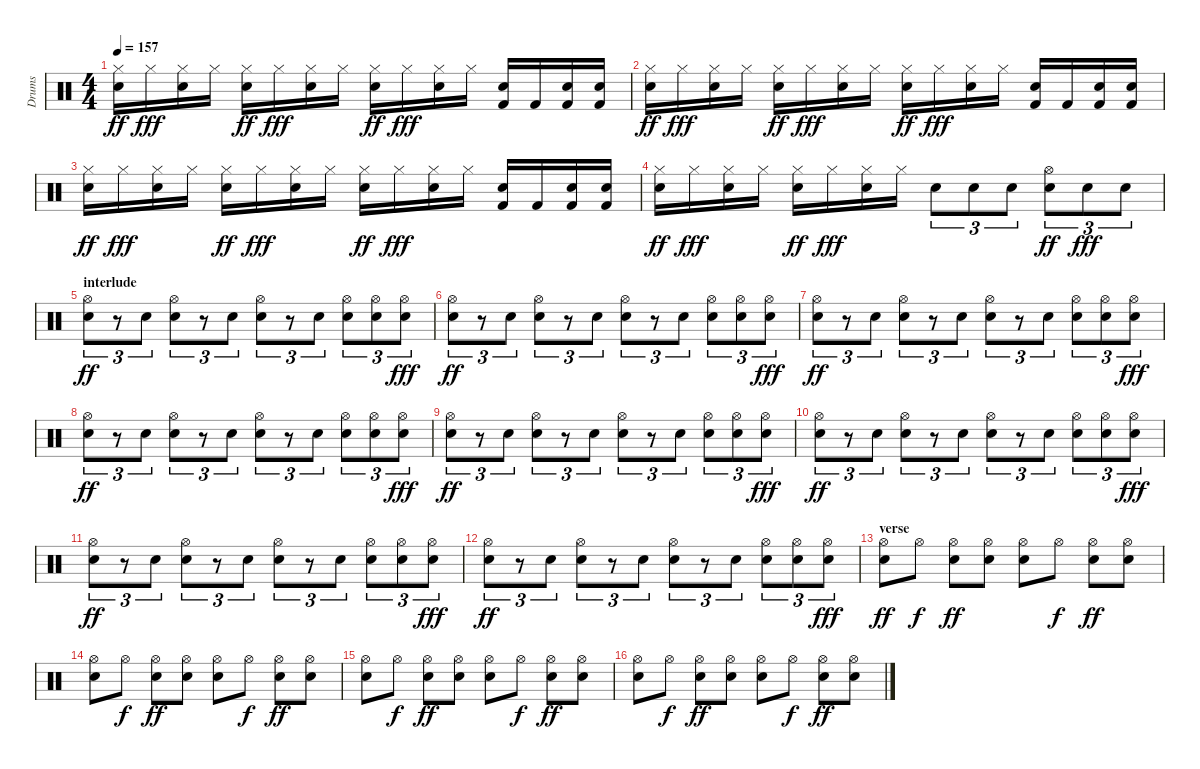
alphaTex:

\track ("Drums" "Drums") {instrument percussion}
\staff {score}
\articulation defaults
\ts (4 4)
\tempo 157
\clef neutral
\ks c
("Hi-Hat (closed)" "Electric Snare (hit)").16{dy ff} "Hi-Hat (closed)".16{dy fff} ("Hi-Hat (closed)" "Snare (hit) 2").16 "Hi-Hat (closed)".16 ("Hi-Hat (closed)" "Electric Snare (hit)").16{dy ff} "Hi-Hat (closed)".16{dy fff} ("Hi-Hat (closed)" "Snare (hit) 2").16 "Hi-Hat (closed)".16 ("Hi-Hat (closed)" "Electric Snare (hit)").16{dy ff} "Hi-Hat (closed)".16{dy fff} ("Hi-Hat (closed)" "Snare (hit) 2").16 "Hi-Hat (closed)".16 ("Kick (hit) 2" "Electric Snare (hit)").16 "Kick (hit) 2".16 ("Kick (hit) 2" "Electric Snare (hit)").16 ("Kick (hit) 2" "Electric Snare (hit)").16 |
("Hi-Hat (closed)" "Electric Snare (hit)").16{dy ff} "Hi-Hat (closed)".16{dy fff} ("Hi-Hat (closed)" "Snare (hit) 2").16 "Hi-Hat (closed)".16 ("Hi-Hat (closed)" "Electric Snare (hit)").16{dy ff} "Hi-Hat (closed)".16{dy fff} ("Hi-Hat (closed)" "Snare (hit) 2").16 "Hi-Hat (closed)".16 ("Hi-Hat (closed)" "Electric Snare (hit)").16{dy ff} "Hi-Hat (closed)".16{dy fff} ("Hi-Hat (closed)" "Snare (hit) 2").16 "Hi-Hat (closed)".16 ("Kick (hit) 2" "Electric Snare (hit)").16 "Kick (hit) 2".16 ("Kick (hit) 2" "Electric Snare (hit)").16 ("Kick (hit) 2" "Electric Snare (hit)").16 |
("Hi-Hat (closed)" "Electric Snare (hit)").16{dy ff} "Hi-Hat (closed)".16{dy fff} ("Hi-Hat (closed)" "Snare (hit) 2").16 "Hi-Hat (closed)".16 ("Hi-Hat (closed)" "Electric Snare (hit)").16{dy ff} "Hi-Hat (closed)".16{dy fff} ("Hi-Hat (closed)" "Snare (hit) 2").16 "Hi-Hat (closed)".16 ("Hi-Hat (closed)" "Electric Snare (hit)").16{dy ff} "Hi-Hat (closed)".16{dy fff} ("Hi-Hat (closed)" "Snare (hit) 2").16 "Hi-Hat (closed)".16 ("Kick (hit) 2" "Electric Snare (hit)").16 "Kick (hit) 2".16 ("Kick (hit) 2" "Electric Snare (hit)").16 ("Kick (hit) 2" "Electric Snare (hit)").16 |
("Hi-Hat (closed)" "Electric Snare (hit)").16{dy ff} "Hi-Hat (closed)".16{dy fff} ("Hi-Hat (closed)" "Snare (hit) 2").16 "Hi-Hat (closed)".16 ("Hi-Hat (closed)" "Electric Snare (hit)").16{dy ff} "Hi-Hat (closed)".16{dy fff} ("Hi-Hat (closed)" "Snare (hit) 2").16 "Hi-Hat (closed)".16 "Electric Snare (hit)".8{tu (3 2)} "Electric Snare (hit)".8{tu (3 2)} "Electric Snare (hit)".8{tu (3 2)} ("Snare (hit) 2" "Hi-Hat (open)").8{tu (3 2) dy ff} "Snare (hit) 2".8{tu (3 2) dy fff} "Snare (hit) 2".8{tu (3 2)} |
\section ("" "interlude")
("Electric Snare (hit)" "Hi-Hat (open)").8{tu (3 2) dy ff} r.8{tu (3 2)} "Electric Snare (hit)".8{tu (3 2)} ("Electric Snare (hit)" "Hi-Hat (open)").8{tu (3 2)} r.8{tu (3 2)} "Electric Snare (hit)".8{tu (3 2)} ("Electric Snare (hit)" "Hi-Hat (open)").8{tu (3 2)} r.8{tu (3 2)} "Electric Snare (hit)".8{tu (3 2)} ("Electric Snare (hit)" "Hi-Hat (open)").8{tu (3 2)} ("Electric Snare (hit)" "Hi-Hat (open)").8{tu (3 2)} ("Electric Snare (hit)" "Hi-Hat (open)").8{tu (3 2) dy fff} |
("Electric Snare (hit)" "Hi-Hat (open)").8{tu (3 2) dy ff} r.8{tu (3 2)} "Electric Snare (hit)".8{tu (3 2)} ("Electric Snare (hit)" "Hi-Hat (open)").8{tu (3 2)} r.8{tu (3 2)} "Electric Snare (hit)".8{tu (3 2)} ("Electric Snare (hit)" "Hi-Hat (open)").8{tu (3 2)} r.8{tu (3 2)} "Electric Snare (hit)".8{tu (3 2)} ("Electric Snare (hit)" "Hi-Hat (open)").8{tu (3 2)} ("Electric Snare (hit)" "Hi-Hat (open)").8{tu (3 2)} ("Electric Snare (hit)" "Hi-Hat (open)").8{tu (3 2) dy fff} |
("Electric Snare (hit)" "Hi-Hat (open)").8{tu (3 2) dy ff} r.8{tu (3 2)} "Electric Snare (hit)".8{tu (3 2)} ("Electric Snare (hit)" "Hi-Hat (open)").8{tu (3 2)} r.8{tu (3 2)} "Electric Snare (hit)".8{tu (3 2)} ("Electric Snare (hit)" "Hi-Hat (open)").8{tu (3 2)} r.8{tu (3 2)} "Electric Snare (hit)".8{tu (3 2)} ("Electric Snare (hit)" "Hi-Hat (open)").8{tu (3 2)} ("Electric Snare (hit)" "Hi-Hat (open)").8{tu (3 2)} ("Electric Snare (hit)" "Hi-Hat (open)").8{tu (3 2) dy fff} |
("Electric Snare (hit)" "Hi-Hat (open)").8{tu (3 2) dy ff} r.8{tu (3 2)} "Electric Snare (hit)".8{tu (3 2)} ("Electric Snare (hit)" "Hi-Hat (open)").8{tu (3 2)} r.8{tu (3 2)} "Electric Snare (hit)".8{tu (3 2)} ("Electric Snare (hit)" "Hi-Hat (open)").8{tu (3 2)} r.8{tu (3 2)} "Electric Snare (hit)".8{tu (3 2)} ("Electric Snare (hit)" "Hi-Hat (open)").8{tu (3 2)} ("Electric Snare (hit)" "Hi-Hat (open)").8{tu (3 2)} ("Electric Snare (hit)" "Hi-Hat (open)").8{tu (3 2) dy fff} |
("Electric Snare (hit)" "Hi-Hat (open)").8{tu (3 2) dy ff} r.8{tu (3 2)} "Electric Snare (hit)".8{tu (3 2)} ("Electric Snare (hit)" "Hi-Hat (open)").8{tu (3 2)} r.8{tu (3 2)} "Electric Snare (hit)".8{tu (3 2)} ("Electric Snare (hit)" "Hi-Hat (open)").8{tu (3 2)} r.8{tu (3 2)} "Electric Snare (hit)".8{tu (3 2)} ("Electric Snare (hit)" "Hi-Hat (open)").8{tu (3 2)} ("Electric Snare (hit)" "Hi-Hat (open)").8{tu (3 2)} ("Electric Snare (hit)" "Hi-Hat (open)").8{tu (3 2) dy fff} |
("Electric Snare (hit)" "Hi-Hat (open)").8{tu (3 2) dy ff} r.8{tu (3 2)} "Electric Snare (hit)".8{tu (3 2)} ("Electric Snare (hit)" "Hi-Hat (open)").8{tu (3 2)} r.8{tu (3 2)} "Electric Snare (hit)".8{tu (3 2)} ("Electric Snare (hit)" "Hi-Hat (open)").8{tu (3 2)} r.8{tu (3 2)} "Electric Snare (hit)".8{tu (3 2)} ("Electric Snare (hit)" "Hi-Hat (open)").8{tu (3 2)} ("Electric Snare (hit)" "Hi-Hat (open)").8{tu (3 2)} ("Electric Snare (hit)" "Hi-Hat (open)").8{tu (3 2) dy fff} |
("Electric Snare (hit)" "Hi-Hat (open)").8{tu (3 2) dy ff} r.8{tu (3 2)} "Electric Snare (hit)".8{tu (3 2)} ("Electric Snare (hit)" "Hi-Hat (open)").8{tu (3 2)} r.8{tu (3 2)} "Electric Snare (hit)".8{tu (3 2)} ("Electric Snare (hit)" "Hi-Hat (open)").8{tu (3 2)} r.8{tu (3 2)} "Electric Snare (hit)".8{tu (3 2)} ("Electric Snare (hit)" "Hi-Hat (open)").8{tu (3 2)} ("Electric Snare (hit)" "Hi-Hat (open)").8{tu (3 2)} ("Electric Snare (hit)" "Hi-Hat (open)").8{tu (3 2) dy fff} |
("Electric Snare (hit)" "Hi-Hat (open)").8{tu (3 2) dy ff} r.8{tu (3 2)} "Electric Snare (hit)".8{tu (3 2)} ("Electric Snare (hit)" "Hi-Hat (open)").8{tu (3 2)} r.8{tu (3 2)} "Electric Snare (hit)".8{tu (3 2)} ("Electric Snare (hit)" "Hi-Hat (open)").8{tu (3 2)} r.8{tu (3 2)} "Electric Snare (hit)".8{tu (3 2)} ("Electric Snare (hit)" "Hi-Hat (open)").8{tu (3 2)} ("Electric Snare (hit)" "Hi-Hat (open)").8{tu (3 2)} ("Electric Snare (hit)" "Hi-Hat (open)").8{tu (3 2) dy fff} |
\section ("" "verse")
("Snare (hit) 2" "Hi-Hat (open)").8{dy ff} "Hi-Hat (open)".8{dy f} ("Snare (hit) 2" "Hi-Hat (open)").8{dy ff} ("Electric Snare (hit)" "Hi-Hat (open)").8 ("Snare (hit) 2" "Hi-Hat (open)").8 "Hi-Hat (open)".8{dy f} ("Snare (hit) 2" "Hi-Hat (open)").8{dy ff} ("Electric Snare (hit)" "Hi-Hat (open)").8 |
("Snare (hit) 2" "Hi-Hat (open)").8 "Hi-Hat (open)".8{dy f} ("Snare (hit) 2" "Hi-Hat (open)").8{dy ff} ("Electric Snare (hit)" "Hi-Hat (open)").8 ("Snare (hit) 2" "Hi-Hat (open)").8 "Hi-Hat (open)".8{dy f} ("Snare (hit) 2" "Hi-Hat (open)").8{dy ff} ("Electric Snare (hit)" "Hi-Hat (open)").8 |
("Snare (hit) 2" "Hi-Hat (open)").8 "Hi-Hat (open)".8{dy f} ("Snare (hit) 2" "Hi-Hat (open)").8{dy ff} ("Electric Snare (hit)" "Hi-Hat (open)").8 ("Snare (hit) 2" "Hi-Hat (open)").8 "Hi-Hat (open)".8{dy f} ("Snare (hit) 2" "Hi-Hat (open)").8{dy ff} ("Electric Snare (hit)" "Hi-Hat (open)").8 |
("Snare (hit) 2" "Hi-Hat (open)").8 "Hi-Hat (open)".8{dy f} ("Snare (hit) 2" "Hi-Hat (open)").8{dy ff} ("Electric Snare (hit)" "Hi-Hat (open)").8 ("Snare (hit) 2" "Hi-Hat (open)").8 "Hi-Hat (open)".8{dy f} ("Snare (hit) 2" "Hi-Hat (open)").8{dy ff} ("Electric Snare (hit)" "Hi-Hat (open)").8
